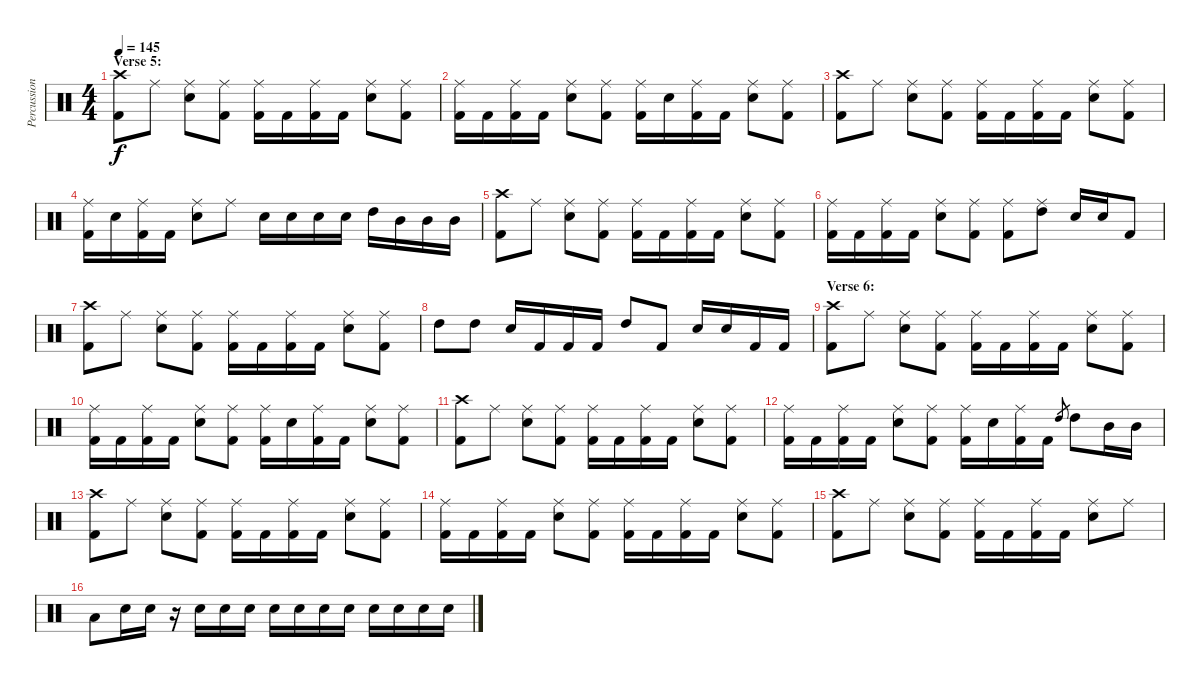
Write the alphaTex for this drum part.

\track ("Percussion" "Percussion") {instrument percussion}
\staff {score}
\articulation defaults
\ts (4 4)
\section ("" "Verse 5:")
\tempo 145
\clef neutral
\ks c
("Crash high (hit)" "Kick (hit) 2").8{dy f} "Ride (middle)".8 ("Ride (middle)" "Electric Snare (hit)").8 ("Ride (middle)" "Kick (hit) 2").8 ("Ride (middle)" "Kick (hit) 2").16 "Kick (hit) 2".16 ("Ride (middle)" "Kick (hit) 2").16 "Kick (hit) 2".16 ("Ride (middle)" "Electric Snare (hit)").8 ("Ride (middle)" "Kick (hit) 2").8 |
("Ride (middle)" "Kick (hit) 2").16 "Kick (hit) 2".16 ("Ride (middle)" "Kick (hit) 2").16 "Kick (hit) 2".16 ("Ride (middle)" "Electric Snare (hit)").8 ("Ride (middle)" "Kick (hit) 2").8 ("Ride (middle)" "Kick (hit) 2").16 "Electric Snare (hit)".16 ("Ride (middle)" "Kick (hit) 2").16 "Kick (hit) 2".16 ("Ride (middle)" "Electric Snare (hit)").8 ("Ride (middle)" "Kick (hit) 2").8 |
("Crash high (hit)" "Kick (hit) 2").8 "Ride (middle)".8 ("Ride (middle)" "Electric Snare (hit)").8 ("Ride (middle)" "Kick (hit) 2").8 ("Ride (middle)" "Kick (hit) 2").16 "Kick (hit) 2".16 ("Ride (middle)" "Kick (hit) 2").16 "Kick (hit) 2".16 ("Ride (middle)" "Electric Snare (hit)").8 ("Ride (middle)" "Kick (hit) 2").8 |
("Ride (middle)" "Kick (hit) 2").16 "Electric Snare (hit)".16 ("Ride (middle)" "Kick (hit) 2").16 "Kick (hit) 2".16 ("Ride (middle)" "Electric Snare (hit)").8 "Ride (middle)".8 "Electric Snare (hit)".16 "Electric Snare (hit)".16 "Electric Snare (hit)".16 "Electric Snare (hit)".16 "High Tom (hit)".16 "Mid Tom (hit)".16 "Mid Tom (hit)".16 "Mid Tom (hit)".16 |
("Crash high (hit)" "Kick (hit) 2").8 "Ride (middle)".8 ("Ride (middle)" "Electric Snare (hit)").8 ("Ride (middle)" "Kick (hit) 2").8 ("Ride (middle)" "Kick (hit) 2").16 "Kick (hit) 2".16 ("Ride (middle)" "Kick (hit) 2").16 "Kick (hit) 2".16 ("Ride (middle)" "Electric Snare (hit)").8 ("Ride (middle)" "Kick (hit) 2").8 |
("Ride (middle)" "Kick (hit) 2").16 "Kick (hit) 2".16 ("Ride (middle)" "Kick (hit) 2").16 "Kick (hit) 2".16 ("Ride (middle)" "Electric Snare (hit)").8 ("Ride (middle)" "Kick (hit) 2").8 ("Ride (middle)" "Kick (hit) 2").8 ("Ride (middle)" "High Tom (hit)").8 "Electric Snare (hit)".16 "Electric Snare (hit)".16 "Kick (hit) 2".8 |
("Crash high (hit)" "Kick (hit) 2").8 "Ride (middle)".8 ("Ride (middle)" "Electric Snare (hit)").8 ("Ride (middle)" "Kick (hit) 2").8 ("Ride (middle)" "Kick (hit) 2").16 "Kick (hit) 2".16 ("Ride (middle)" "Kick (hit) 2").16 "Kick (hit) 2".16 ("Ride (middle)" "Electric Snare (hit)").8 ("Ride (middle)" "Kick (hit) 2").8 |
"High Tom (hit)".8 "High Tom (hit)".8 "Electric Snare (hit)".16 "Kick (hit) 2".16 "Kick (hit) 2".16 "Kick (hit) 2".16 "High Tom (hit)".8 "Kick (hit) 2".8 "Electric Snare (hit)".16 "Electric Snare (hit)".16 "Kick (hit) 2".16 "Kick (hit) 2".16 |
\section ("" "Verse 6:")
("Crash high (hit)" "Kick (hit) 2").8 "Ride (middle)".8 ("Ride (middle)" "Electric Snare (hit)").8 ("Ride (middle)" "Kick (hit) 2").8 ("Ride (middle)" "Kick (hit) 2").16 "Kick (hit) 2".16 ("Ride (middle)" "Kick (hit) 2").16 "Kick (hit) 2".16 ("Ride (middle)" "Electric Snare (hit)").8 ("Ride (middle)" "Kick (hit) 2").8 |
("Ride (middle)" "Kick (hit) 2").16 "Kick (hit) 2".16 ("Ride (middle)" "Kick (hit) 2").16 "Kick (hit) 2".16 ("Ride (middle)" "Electric Snare (hit)").8 ("Ride (middle)" "Kick (hit) 2").8 ("Ride (middle)" "Kick (hit) 2").16 "Electric Snare (hit)".16 ("Ride (middle)" "Kick (hit) 2").16 "Kick (hit) 2".16 ("Ride (middle)" "Electric Snare (hit)").8 ("Ride (middle)" "Kick (hit) 2").8 |
("Crash high (hit)" "Kick (hit) 2").8 "Ride (middle)".8 ("Ride (middle)" "Electric Snare (hit)").8 ("Ride (middle)" "Kick (hit) 2").8 ("Ride (middle)" "Kick (hit) 2").16 "Kick (hit) 2".16 ("Ride (middle)" "Kick (hit) 2").16 "Kick (hit) 2".16 ("Ride (middle)" "Electric Snare (hit)").8 ("Ride (middle)" "Kick (hit) 2").8 |
("Ride (middle)" "Kick (hit) 2").16 "Kick (hit) 2".16 ("Ride (middle)" "Kick (hit) 2").16 "Kick (hit) 2".16 ("Ride (middle)" "Electric Snare (hit)").8 ("Ride (middle)" "Kick (hit) 2").8 ("Ride (middle)" "Kick (hit) 2").16 "Electric Snare (hit)".16 ("Ride (middle)" "Kick (hit) 2").16 "Kick (hit) 2".16 "High Tom (hit)".8{gr} "High Tom (hit)".8 "Mid Tom (hit)".16 "Mid Tom (hit)".16 |
("Crash high (hit)" "Kick (hit) 2").8 "Ride (middle)".8 ("Ride (middle)" "Electric Snare (hit)").8 ("Ride (middle)" "Kick (hit) 2").8 ("Ride (middle)" "Kick (hit) 2").16 "Kick (hit) 2".16 ("Ride (middle)" "Kick (hit) 2").16 "Kick (hit) 2".16 ("Ride (middle)" "Electric Snare (hit)").8 ("Ride (middle)" "Kick (hit) 2").8 |
("Ride (middle)" "Kick (hit) 2").16 "Kick (hit) 2".16 ("Ride (middle)" "Kick (hit) 2").16 "Kick (hit) 2".16 ("Ride (middle)" "Electric Snare (hit)").8 ("Ride (middle)" "Kick (hit) 2").8 ("Ride (middle)" "Kick (hit) 2").16 "Kick (hit) 2".16 ("Ride (middle)" "Kick (hit) 2").16 "Kick (hit) 2".16 ("Ride (middle)" "Electric Snare (hit)").8 ("Ride (middle)" "Kick (hit) 2").8 |
("Crash high (hit)" "Kick (hit) 2").8 "Ride (middle)".8 ("Ride (middle)" "Electric Snare (hit)").8 ("Ride (middle)" "Kick (hit) 2").8 ("Ride (middle)" "Kick (hit) 2").16 "Kick (hit) 2".16 ("Ride (middle)" "Kick (hit) 2").16 "Kick (hit) 2".16 ("Ride (middle)" "Electric Snare (hit)").8 "Ride (middle)".8 |
"Low Tom (hit)".8 "Electric Snare (hit)".16 "Electric Snare (hit)".16 r.16 "Electric Snare (hit)".16 "Electric Snare (hit)".16 "Electric Snare (hit)".16 "Electric Snare (hit)".16 "Electric Snare (hit)".16 "Electric Snare (hit)".16 "Electric Snare (hit)".16 "Electric Snare (hit)".16 "Electric Snare (hit)".16 "Electric Snare (hit)".16 "Electric Snare (hit)".16
